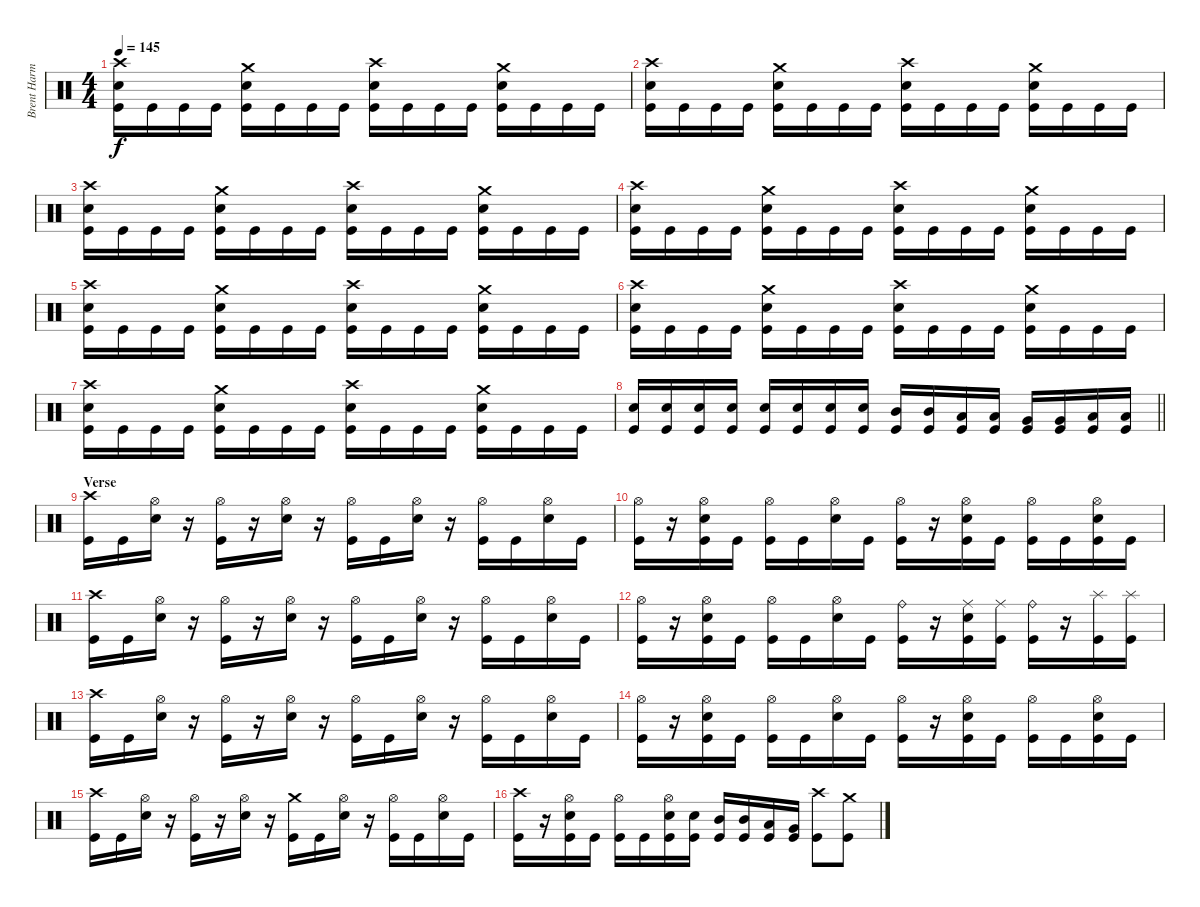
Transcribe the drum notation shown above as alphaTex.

\track ("Brent Harman" "Brent Harm") {instrument percussion}
\staff {score}
\articulation defaults
\ts (4 4)
\tempo 145
\clef neutral
\ks c
("Crash high (hit)" "Snare (hit) 2" "Kick (hit)").16{dy f} "Kick (hit)".16 "Kick (hit)".16 "Kick (hit)".16 ("Crash medium (hit)" "Snare (hit) 2" "Kick (hit)").16 "Kick (hit)".16 "Kick (hit)".16 "Kick (hit)".16 ("Crash high (hit)" "Snare (hit) 2" "Kick (hit)").16 "Kick (hit)".16 "Kick (hit)".16 "Kick (hit)".16 ("Crash medium (hit)" "Snare (hit) 2" "Kick (hit)").16 "Kick (hit)".16 "Kick (hit)".16 "Kick (hit)".16 |
("Crash high (hit)" "Snare (hit) 2" "Kick (hit)").16 "Kick (hit)".16 "Kick (hit)".16 "Kick (hit)".16 ("Crash medium (hit)" "Snare (hit) 2" "Kick (hit)").16 "Kick (hit)".16 "Kick (hit)".16 "Kick (hit)".16 ("Crash high (hit)" "Snare (hit) 2" "Kick (hit)").16 "Kick (hit)".16 "Kick (hit)".16 "Kick (hit)".16 ("Crash medium (hit)" "Snare (hit) 2" "Kick (hit)").16 "Kick (hit)".16 "Kick (hit)".16 "Kick (hit)".16 |
("Crash high (hit)" "Snare (hit) 2" "Kick (hit)").16 "Kick (hit)".16 "Kick (hit)".16 "Kick (hit)".16 ("Crash medium (hit)" "Snare (hit) 2" "Kick (hit)").16 "Kick (hit)".16 "Kick (hit)".16 "Kick (hit)".16 ("Crash high (hit)" "Snare (hit) 2" "Kick (hit)").16 "Kick (hit)".16 "Kick (hit)".16 "Kick (hit)".16 ("Crash medium (hit)" "Snare (hit) 2" "Kick (hit)").16 "Kick (hit)".16 "Kick (hit)".16 "Kick (hit)".16 |
("Crash high (hit)" "Snare (hit) 2" "Kick (hit)").16 "Kick (hit)".16 "Kick (hit)".16 "Kick (hit)".16 ("Crash medium (hit)" "Snare (hit) 2" "Kick (hit)").16 "Kick (hit)".16 "Kick (hit)".16 "Kick (hit)".16 ("Crash high (hit)" "Snare (hit) 2" "Kick (hit)").16 "Kick (hit)".16 "Kick (hit)".16 "Kick (hit)".16 ("Crash medium (hit)" "Snare (hit) 2" "Kick (hit)").16 "Kick (hit)".16 "Kick (hit)".16 "Kick (hit)".16 |
("Crash high (hit)" "Snare (hit) 2" "Kick (hit)").16 "Kick (hit)".16 "Kick (hit)".16 "Kick (hit)".16 ("Crash medium (hit)" "Snare (hit) 2" "Kick (hit)").16 "Kick (hit)".16 "Kick (hit)".16 "Kick (hit)".16 ("Crash high (hit)" "Snare (hit) 2" "Kick (hit)").16 "Kick (hit)".16 "Kick (hit)".16 "Kick (hit)".16 ("Crash medium (hit)" "Snare (hit) 2" "Kick (hit)").16 "Kick (hit)".16 "Kick (hit)".16 "Kick (hit)".16 |
("Crash high (hit)" "Snare (hit) 2" "Kick (hit)").16 "Kick (hit)".16 "Kick (hit)".16 "Kick (hit)".16 ("Crash medium (hit)" "Snare (hit) 2" "Kick (hit)").16 "Kick (hit)".16 "Kick (hit)".16 "Kick (hit)".16 ("Crash high (hit)" "Snare (hit) 2" "Kick (hit)").16 "Kick (hit)".16 "Kick (hit)".16 "Kick (hit)".16 ("Crash medium (hit)" "Snare (hit) 2" "Kick (hit)").16 "Kick (hit)".16 "Kick (hit)".16 "Kick (hit)".16 |
("Crash high (hit)" "Snare (hit) 2" "Kick (hit)").16 "Kick (hit)".16 "Kick (hit)".16 "Kick (hit)".16 ("Crash medium (hit)" "Snare (hit) 2" "Kick (hit)").16 "Kick (hit)".16 "Kick (hit)".16 "Kick (hit)".16 ("Crash high (hit)" "Snare (hit) 2" "Kick (hit)").16 "Kick (hit)".16 "Kick (hit)".16 "Kick (hit)".16 ("Crash medium (hit)" "Snare (hit) 2" "Kick (hit)").16 "Kick (hit)".16 "Kick (hit)".16 "Kick (hit)".16 |
\barLineRight lightlight
("Snare (hit) 2" "Kick (hit)").16 ("Snare (hit) 2" "Kick (hit)").16 ("Snare (hit) 2" "Kick (hit)").16 ("Snare (hit) 2" "Kick (hit)").16 ("Snare (hit) 2" "Kick (hit)").16 ("Snare (hit) 2" "Kick (hit)").16 ("Snare (hit) 2" "Kick (hit)").16 ("Snare (hit) 2" "Kick (hit)").16 ("Mid Tom (hit)" "Kick (hit)").16 ("Mid Tom (hit)" "Kick (hit)").16 ("Low Tom (hit)" "Kick (hit)").16 ("Low Tom (hit)" "Kick (hit)").16 ("Very Low Tom (hit)" "Kick (hit)").16 ("Very Low Tom (hit)" "Kick (hit)").16 ("Low Floor Tom (hit)" "Kick (hit)").16 ("Low Floor Tom (hit)" "Kick (hit)").16 |
\section ("" "Verse")
("Crash high (hit)" "Kick (hit)").16 "Kick (hit)".16 ("Hi-Hat (open)" "Snare (hit) 2").16 r.16 ("Hi-Hat (open)" "Kick (hit)").16 r.16 ("Hi-Hat (open)" "Snare (hit) 2").16 r.16 ("Hi-Hat (open)" "Kick (hit)").16 "Kick (hit)".16 ("Hi-Hat (open)" "Snare (hit) 2").16 r.16 ("Hi-Hat (open)" "Kick (hit)").16 "Kick (hit)".16 ("Hi-Hat (open)" "Snare (hit) 2").16 "Kick (hit)".16 |
("Hi-Hat (open)" "Kick (hit)").16 r.16 ("Hi-Hat (open)" "Snare (hit) 2" "Kick (hit)").16 "Kick (hit)".16 ("Hi-Hat (open)" "Kick (hit)").16 "Kick (hit)".16 ("Hi-Hat (open)" "Snare (hit) 2").16 "Kick (hit)".16 ("Hi-Hat (open)" "Kick (hit)").16 r.16 ("Hi-Hat (open)" "Snare (hit) 2" "Kick (hit)").16 "Kick (hit)".16 ("Hi-Hat (open)" "Kick (hit)").16 "Kick (hit)".16 ("Hi-Hat (open)" "Snare (hit) 2" "Kick (hit)").16 "Kick (hit)".16 |
("Crash high (hit)" "Kick (hit)").16 "Kick (hit)".16 ("Hi-Hat (open)" "Snare (hit) 2").16 r.16 ("Hi-Hat (open)" "Kick (hit)").16 r.16 ("Hi-Hat (open)" "Snare (hit) 2").16 r.16 ("Hi-Hat (open)" "Kick (hit)").16 "Kick (hit)".16 ("Hi-Hat (open)" "Snare (hit) 2").16 r.16 ("Hi-Hat (open)" "Kick (hit)").16 "Kick (hit)".16 ("Hi-Hat (open)" "Snare (hit) 2").16 "Kick (hit)".16 |
("Hi-Hat (open)" "Kick (hit)").16 r.16 ("Hi-Hat (open)" "Snare (hit) 2" "Kick (hit)").16 "Kick (hit)".16 ("Hi-Hat (open)" "Kick (hit)").16 "Kick (hit)".16 ("Hi-Hat (open)" "Snare (hit) 2").16 "Kick (hit)".16 ("Ride (bell)" "Kick (hit)").16 r.16 ("Ride (middle)" "Snare (hit) 2" "Kick (hit)").16 ("Ride (middle)" "Kick (hit)").16 ("Ride (bell)" "Kick (hit)").16 r.16 ("Splash (hit)" "Kick (hit)").16 ("Splash (hit)" "Kick (hit)").16 |
("Crash high (hit)" "Kick (hit)").16 "Kick (hit)".16 ("Hi-Hat (open)" "Snare (hit) 2").16 r.16 ("Hi-Hat (open)" "Kick (hit)").16 r.16 ("Hi-Hat (open)" "Snare (hit) 2").16 r.16 ("Hi-Hat (open)" "Kick (hit)").16 "Kick (hit)".16 ("Hi-Hat (open)" "Snare (hit) 2").16 r.16 ("Hi-Hat (open)" "Kick (hit)").16 "Kick (hit)".16 ("Hi-Hat (open)" "Snare (hit) 2").16 "Kick (hit)".16 |
("Hi-Hat (open)" "Kick (hit)").16 r.16 ("Hi-Hat (open)" "Snare (hit) 2" "Kick (hit)").16 "Kick (hit)".16 ("Hi-Hat (open)" "Kick (hit)").16 "Kick (hit)".16 ("Hi-Hat (open)" "Snare (hit) 2").16 "Kick (hit)".16 ("Hi-Hat (open)" "Kick (hit)").16 r.16 ("Hi-Hat (open)" "Snare (hit) 2" "Kick (hit)").16 "Kick (hit)".16 ("Hi-Hat (open)" "Kick (hit)").16 "Kick (hit)".16 ("Hi-Hat (open)" "Snare (hit) 2" "Kick (hit)").16 "Kick (hit)".16 |
("Crash high (hit)" "Kick (hit)").16 "Kick (hit)".16 ("Hi-Hat (open)" "Snare (hit) 2").16 r.16 ("Hi-Hat (open)" "Kick (hit)").16 r.16 ("Hi-Hat (open)" "Snare (hit) 2").16 r.16 ("Crash medium (hit)" "Kick (hit)").16 "Kick (hit)".16 ("Hi-Hat (open)" "Snare (hit) 2").16 r.16 ("Hi-Hat (open)" "Kick (hit)").16 "Kick (hit)".16 ("Hi-Hat (open)" "Snare (hit) 2").16 "Kick (hit)".16 |
("Crash high (hit)" "Kick (hit)").16 r.16 ("Hi-Hat (open)" "Snare (hit) 2" "Kick (hit)").16 "Kick (hit)".16 ("Hi-Hat (open)" "Kick (hit)").16 "Kick (hit)".16 ("Hi-Hat (open)" "Snare (hit) 2" "Kick (hit)").16 ("Snare (hit) 2" "Kick (hit)").16 ("Mid Tom (hit)" "Kick (hit)").16 ("Mid Tom (hit)" "Kick (hit)").16 ("Low Tom (hit)" "Kick (hit)").16 ("Very Low Tom (hit)" "Kick (hit)").16 ("Crash high (hit)" "Kick (hit)").8 ("Crash medium (hit)" "Kick (hit)").8
